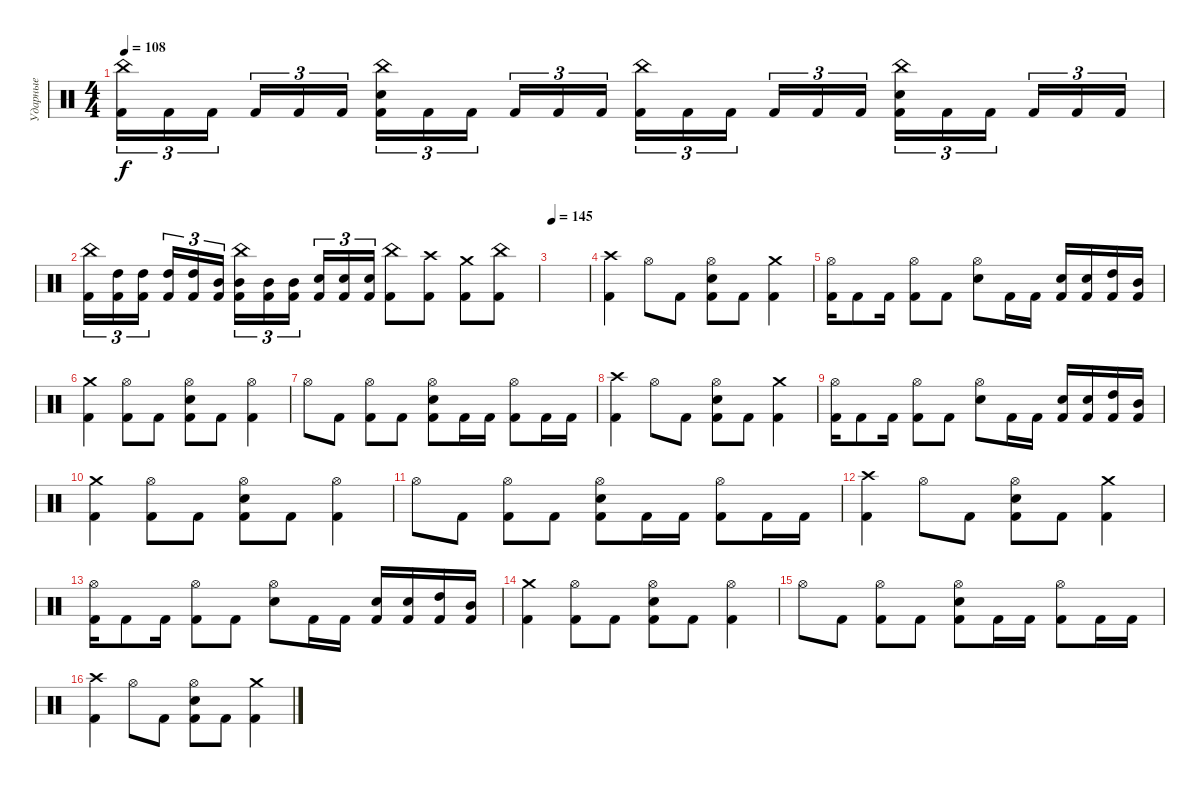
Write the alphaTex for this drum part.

\track ("Ударные" "Ударные") {instrument percussion}
\staff {score}
\articulation defaults
\ts (4 4)
\tempo 108
\clef neutral
\ks c
("China (hit)" "Kick (hit) 2").16{tu (3 2) dy f} "Kick (hit) 2".16{tu (3 2)} "Kick (hit) 2".16{tu (3 2) beam splitsecondary} "Kick (hit) 2".16{tu (3 2)} "Kick (hit) 2".16{tu (3 2)} "Kick (hit) 2".16{tu (3 2)} ("China (hit)" "Electric Snare (hit)" "Kick (hit) 2").16{tu (3 2)} "Kick (hit) 2".16{tu (3 2)} "Kick (hit) 2".16{tu (3 2) beam splitsecondary} "Kick (hit) 2".16{tu (3 2)} "Kick (hit) 2".16{tu (3 2)} "Kick (hit) 2".16{tu (3 2)} ("China (hit)" "Kick (hit) 2").16{tu (3 2)} "Kick (hit) 2".16{tu (3 2)} "Kick (hit) 2".16{tu (3 2) beam splitsecondary} "Kick (hit) 2".16{tu (3 2)} "Kick (hit) 2".16{tu (3 2)} "Kick (hit) 2".16{tu (3 2)} ("China (hit)" "Electric Snare (hit)" "Kick (hit) 2").16{tu (3 2)} "Kick (hit) 2".16{tu (3 2)} "Kick (hit) 2".16{tu (3 2) beam splitsecondary} "Kick (hit) 2".16{tu (3 2)} "Kick (hit) 2".16{tu (3 2)} "Kick (hit) 2".16{tu (3 2)} |
("China (hit)" "Kick (hit) 2").16{tu (3 2)} ("High Tom (hit)" "Kick (hit) 2").16{tu (3 2)} ("High Tom (hit)" "Kick (hit) 2").16{tu (3 2) beam splitsecondary} ("High Tom (hit)" "Kick (hit) 2").16{tu (3 2)} ("High Tom (hit)" "Kick (hit) 2").16{tu (3 2)} ("Mid Tom (hit)" "Kick (hit) 2").16{tu (3 2)} ("China (hit)" "Mid Tom (hit)" "Kick (hit) 2").16{tu (3 2)} ("Mid Tom (hit)" "Kick (hit) 2").16{tu (3 2)} ("Mid Tom (hit)" "Kick (hit) 2").16{tu (3 2) beam splitsecondary} ("Electric Snare (hit)" "Kick (hit) 2").16{tu (3 2)} ("Electric Snare (hit)" "Kick (hit) 2").16{tu (3 2)} ("Electric Snare (hit)" "Kick (hit) 2").16{tu (3 2)} ("China (hit)" "Kick (hit) 2").8 ("Crash high (hit)" "Kick (hit) 2").8 ("Crash medium (hit)" "Kick (hit) 2").8 ("China (hit)" "Kick (hit) 2").8 |
\tempo 145
|
("Crash high (hit)" "Kick (hit) 2").4 "Hi-Hat (open)".8 "Kick (hit) 2".8 ("Hi-Hat (open)" "Electric Snare (hit)" "Kick (hit) 2").8 "Kick (hit) 2".8 ("Crash medium (hit)" "Kick (hit) 2").4 |
("Hi-Hat (open)" "Kick (hit) 2").16 "Kick (hit) 2".8 "Kick (hit) 2".16 ("Hi-Hat (open)" "Kick (hit) 2").8 "Kick (hit) 2".8 ("Hi-Hat (open)" "Electric Snare (hit)").8 "Kick (hit) 2".16 "Kick (hit) 2".16 ("Electric Snare (hit)" "Kick (hit) 2").16 ("Electric Snare (hit)" "Kick (hit) 2").16 ("High Tom (hit)" "Kick (hit) 2").16 ("Mid Tom (hit)" "Kick (hit) 2").16 |
("Crash medium (hit)" "Kick (hit) 2").4 ("Hi-Hat (open)" "Kick (hit) 2").8 "Kick (hit) 2".8 ("Hi-Hat (open)" "Electric Snare (hit)" "Kick (hit) 2").8 "Kick (hit) 2".8 ("Hi-Hat (open)" "Kick (hit) 2").4 |
"Hi-Hat (open)".8 "Kick (hit) 2".8 ("Hi-Hat (open)" "Kick (hit) 2").8 "Kick (hit) 2".8 ("Hi-Hat (open)" "Electric Snare (hit)" "Kick (hit) 2").8 "Kick (hit) 2".16 "Kick (hit) 2".16 ("Hi-Hat (open)" "Kick (hit) 2").8 "Kick (hit) 2".16 "Kick (hit) 2".16 |
("Crash high (hit)" "Kick (hit) 2").4 "Hi-Hat (open)".8 "Kick (hit) 2".8 ("Hi-Hat (open)" "Electric Snare (hit)" "Kick (hit) 2").8 "Kick (hit) 2".8 ("Crash medium (hit)" "Kick (hit) 2").4 |
("Hi-Hat (open)" "Kick (hit) 2").16 "Kick (hit) 2".8 "Kick (hit) 2".16 ("Hi-Hat (open)" "Kick (hit) 2").8 "Kick (hit) 2".8 ("Hi-Hat (open)" "Electric Snare (hit)").8 "Kick (hit) 2".16 "Kick (hit) 2".16 ("Electric Snare (hit)" "Kick (hit) 2").16 ("Electric Snare (hit)" "Kick (hit) 2").16 ("High Tom (hit)" "Kick (hit) 2").16 ("Mid Tom (hit)" "Kick (hit) 2").16 |
("Crash medium (hit)" "Kick (hit) 2").4 ("Hi-Hat (open)" "Kick (hit) 2").8 "Kick (hit) 2".8 ("Hi-Hat (open)" "Electric Snare (hit)" "Kick (hit) 2").8 "Kick (hit) 2".8 ("Hi-Hat (open)" "Kick (hit) 2").4 |
"Hi-Hat (open)".8 "Kick (hit) 2".8 ("Hi-Hat (open)" "Kick (hit) 2").8 "Kick (hit) 2".8 ("Hi-Hat (open)" "Electric Snare (hit)" "Kick (hit) 2").8 "Kick (hit) 2".16 "Kick (hit) 2".16 ("Hi-Hat (open)" "Kick (hit) 2").8 "Kick (hit) 2".16 "Kick (hit) 2".16 |
("Crash high (hit)" "Kick (hit) 2").4 "Hi-Hat (open)".8 "Kick (hit) 2".8 ("Hi-Hat (open)" "Electric Snare (hit)" "Kick (hit) 2").8 "Kick (hit) 2".8 ("Crash medium (hit)" "Kick (hit) 2").4 |
("Hi-Hat (open)" "Kick (hit) 2").16 "Kick (hit) 2".8 "Kick (hit) 2".16 ("Hi-Hat (open)" "Kick (hit) 2").8 "Kick (hit) 2".8 ("Hi-Hat (open)" "Electric Snare (hit)").8 "Kick (hit) 2".16 "Kick (hit) 2".16 ("Electric Snare (hit)" "Kick (hit) 2").16 ("Electric Snare (hit)" "Kick (hit) 2").16 ("High Tom (hit)" "Kick (hit) 2").16 ("Mid Tom (hit)" "Kick (hit) 2").16 |
("Crash medium (hit)" "Kick (hit) 2").4 ("Hi-Hat (open)" "Kick (hit) 2").8 "Kick (hit) 2".8 ("Hi-Hat (open)" "Electric Snare (hit)" "Kick (hit) 2").8 "Kick (hit) 2".8 ("Hi-Hat (open)" "Kick (hit) 2").4 |
"Hi-Hat (open)".8 "Kick (hit) 2".8 ("Hi-Hat (open)" "Kick (hit) 2").8 "Kick (hit) 2".8 ("Hi-Hat (open)" "Electric Snare (hit)" "Kick (hit) 2").8 "Kick (hit) 2".16 "Kick (hit) 2".16 ("Hi-Hat (open)" "Kick (hit) 2").8 "Kick (hit) 2".16 "Kick (hit) 2".16 |
("Crash high (hit)" "Kick (hit) 2").4 "Hi-Hat (open)".8 "Kick (hit) 2".8 ("Hi-Hat (open)" "Electric Snare (hit)" "Kick (hit) 2").8 "Kick (hit) 2".8 ("Crash medium (hit)" "Kick (hit) 2").4
